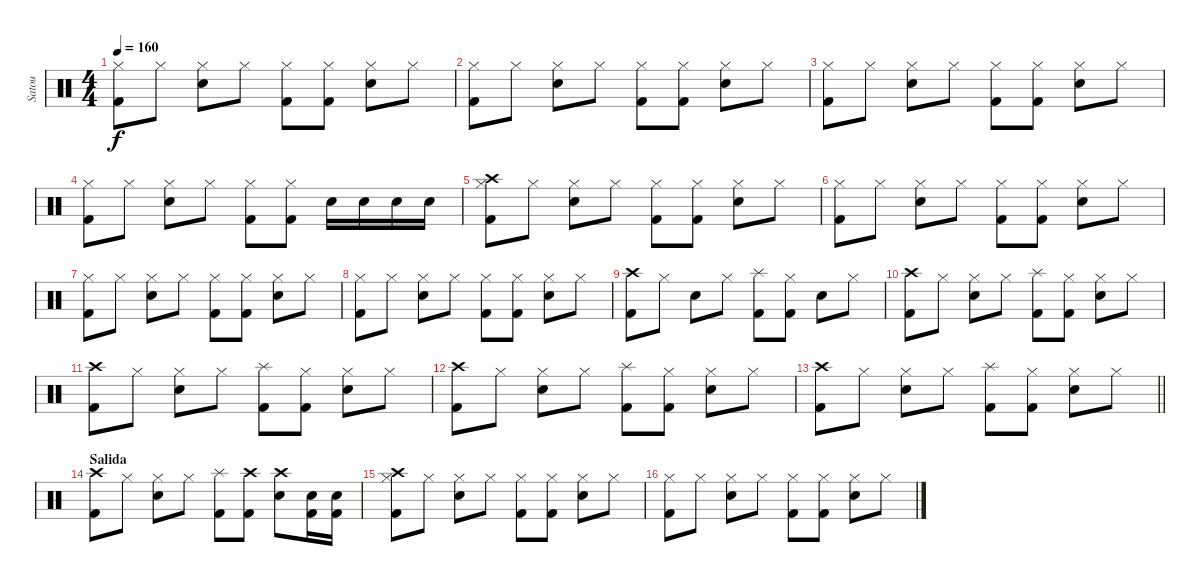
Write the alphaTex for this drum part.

\track ("Satou" "Satou") {instrument percussion}
\staff {score}
\articulation defaults
\ts (4 4)
\tempo 160
\clef neutral
\ks c
("Hi-Hat (closed)" "Kick (hit) 2").8{dy f} "Hi-Hat (closed)".8 ("Hi-Hat (closed)" "Snare (hit) 2").8 "Hi-Hat (closed)".8 ("Hi-Hat (closed)" "Kick (hit) 2").8 ("Hi-Hat (closed)" "Kick (hit) 2").8 ("Hi-Hat (closed)" "Snare (hit) 2").8 "Hi-Hat (closed)".8 |
("Hi-Hat (closed)" "Kick (hit) 2").8 "Hi-Hat (closed)".8 ("Hi-Hat (closed)" "Snare (hit) 2").8 "Hi-Hat (closed)".8 ("Hi-Hat (closed)" "Kick (hit) 2").8 ("Hi-Hat (closed)" "Kick (hit) 2").8 ("Hi-Hat (closed)" "Snare (hit) 2").8 "Hi-Hat (closed)".8 |
("Hi-Hat (closed)" "Kick (hit) 2").8 "Hi-Hat (closed)".8 ("Hi-Hat (closed)" "Snare (hit) 2").8 "Hi-Hat (closed)".8 ("Hi-Hat (closed)" "Kick (hit) 2").8 ("Hi-Hat (closed)" "Kick (hit) 2").8 ("Hi-Hat (closed)" "Snare (hit) 2").8 "Hi-Hat (closed)".8 |
("Hi-Hat (closed)" "Kick (hit) 2").8 "Hi-Hat (closed)".8 ("Hi-Hat (closed)" "Snare (hit) 2").8 "Hi-Hat (closed)".8 ("Hi-Hat (closed)" "Kick (hit) 2").8 ("Hi-Hat (closed)" "Kick (hit) 2").8 "Snare (hit) 2".16 "Snare (hit) 2".16 "Snare (hit) 2".16 "Snare (hit) 2".16 |
("Hi-Hat (closed)" "Kick (hit) 2" "Crash high (hit)").8 "Hi-Hat (closed)".8 ("Hi-Hat (closed)" "Snare (hit) 2").8 "Hi-Hat (closed)".8 ("Hi-Hat (closed)" "Kick (hit) 2").8 ("Hi-Hat (closed)" "Kick (hit) 2").8 ("Hi-Hat (closed)" "Snare (hit) 2").8 "Hi-Hat (closed)".8 |
("Hi-Hat (closed)" "Kick (hit) 2").8 "Hi-Hat (closed)".8 ("Hi-Hat (closed)" "Snare (hit) 2").8 "Hi-Hat (closed)".8 ("Hi-Hat (closed)" "Kick (hit) 2").8 ("Hi-Hat (closed)" "Kick (hit) 2").8 ("Hi-Hat (closed)" "Snare (hit) 2").8 "Hi-Hat (closed)".8 |
("Hi-Hat (closed)" "Kick (hit) 2").8 "Hi-Hat (closed)".8 ("Hi-Hat (closed)" "Snare (hit) 2").8 "Hi-Hat (closed)".8 ("Hi-Hat (closed)" "Kick (hit) 2").8 ("Hi-Hat (closed)" "Kick (hit) 2").8 ("Hi-Hat (closed)" "Snare (hit) 2").8 "Hi-Hat (closed)".8 |
("Hi-Hat (closed)" "Kick (hit) 2").8 "Hi-Hat (closed)".8 ("Hi-Hat (closed)" "Snare (hit) 2").8 "Hi-Hat (closed)".8 ("Hi-Hat (closed)" "Kick (hit) 2").8 ("Hi-Hat (closed)" "Kick (hit) 2").8 ("Hi-Hat (closed)" "Snare (hit) 2").8 "Hi-Hat (closed)".8 |
("Crash high (hit)" "Kick (hit) 2").8 "Hi-Hat (closed)".8 "Snare (hit) 2".8 "Hi-Hat (closed)".8 ("Splash (hit)" "Kick (hit) 2").8 ("Hi-Hat (closed)" "Kick (hit) 2").8 "Snare (hit) 2".8 "Hi-Hat (closed)".8 |
("Crash high (hit)" "Kick (hit) 2").8 "Hi-Hat (closed)".8 ("Hi-Hat (closed)" "Snare (hit) 2").8 "Hi-Hat (closed)".8 ("Splash (hit)" "Kick (hit) 2").8 ("Hi-Hat (closed)" "Kick (hit) 2").8 ("Hi-Hat (closed)" "Snare (hit) 2").8 "Hi-Hat (closed)".8 |
("Crash high (hit)" "Kick (hit) 2").8 "Hi-Hat (closed)".8 ("Hi-Hat (closed)" "Snare (hit) 2").8 "Hi-Hat (closed)".8 ("Splash (hit)" "Kick (hit) 2").8 ("Hi-Hat (closed)" "Kick (hit) 2").8 ("Hi-Hat (closed)" "Snare (hit) 2").8 "Hi-Hat (closed)".8 |
("Crash high (hit)" "Kick (hit) 2").8 "Hi-Hat (closed)".8 ("Hi-Hat (closed)" "Snare (hit) 2").8 "Hi-Hat (closed)".8 ("Splash (hit)" "Kick (hit) 2").8 ("Hi-Hat (closed)" "Kick (hit) 2").8 ("Hi-Hat (closed)" "Snare (hit) 2").8 "Hi-Hat (closed)".8 |
\barLineRight lightlight
("Crash high (hit)" "Kick (hit) 2").8 "Hi-Hat (closed)".8 ("Hi-Hat (closed)" "Snare (hit) 2").8 "Hi-Hat (closed)".8 ("Splash (hit)" "Kick (hit) 2").8 ("Hi-Hat (closed)" "Kick (hit) 2").8 ("Hi-Hat (closed)" "Snare (hit) 2").8 "Hi-Hat (closed)".8 |
\section ("" "Salida")
("Crash high (hit)" "Kick (hit) 2").8 "Hi-Hat (closed)".8 ("Hi-Hat (closed)" "Snare (hit) 2").8 "Hi-Hat (closed)".8 ("Splash (hit)" "Kick (hit) 2").8 ("Crash high (hit)" "Kick (hit) 2").8 ("Crash high (hit)" "Snare (hit) 2").8 ("Kick (hit) 2" "Snare (hit) 2").16 ("Kick (hit) 2" "Snare (hit) 2").16 |
("Hi-Hat (closed)" "Kick (hit) 2" "Crash high (hit)").8 "Hi-Hat (closed)".8 ("Hi-Hat (closed)" "Snare (hit) 2").8 "Hi-Hat (closed)".8 ("Hi-Hat (closed)" "Kick (hit) 2").8 ("Hi-Hat (closed)" "Kick (hit) 2").8 ("Hi-Hat (closed)" "Snare (hit) 2").8 "Hi-Hat (closed)".8 |
("Hi-Hat (closed)" "Kick (hit) 2").8 "Hi-Hat (closed)".8 ("Hi-Hat (closed)" "Snare (hit) 2").8 "Hi-Hat (closed)".8 ("Hi-Hat (closed)" "Kick (hit) 2").8 ("Hi-Hat (closed)" "Kick (hit) 2").8 ("Hi-Hat (closed)" "Snare (hit) 2").8 "Hi-Hat (closed)".8
